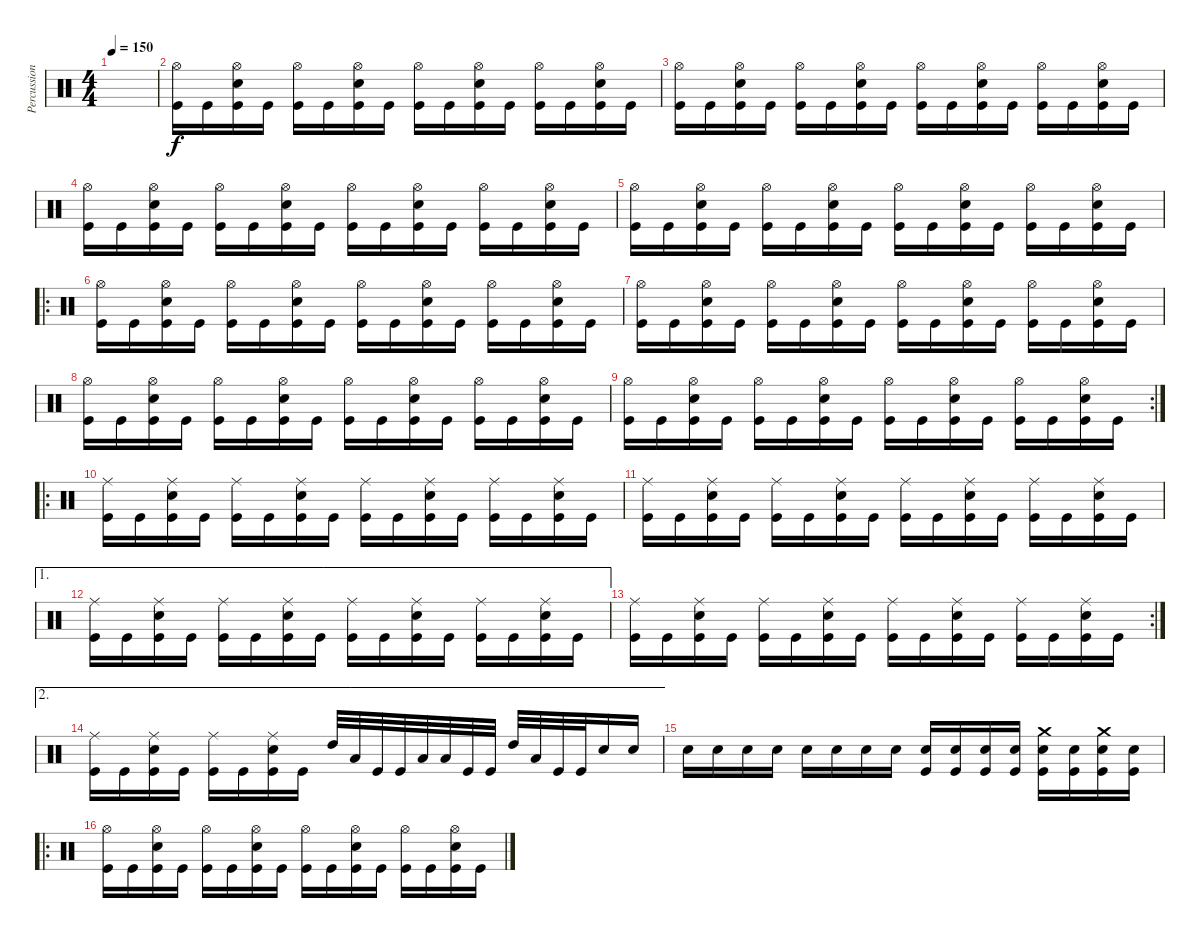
\track ("Percussion" "Percussion") {instrument percussion}
\staff {score}
\articulation defaults
\ts (4 4)
\tempo 150
\clef neutral
\ks c
|
("Hi-Hat (open)" "Kick (hit)").16 "Kick (hit)".16 ("Hi-Hat (open)" "Snare (hit) 2" "Kick (hit)").16 "Kick (hit)".16 ("Hi-Hat (open)" "Kick (hit)").16 "Kick (hit)".16 ("Hi-Hat (open)" "Snare (hit) 2" "Kick (hit)").16 "Kick (hit)".16 ("Hi-Hat (open)" "Kick (hit)").16 "Kick (hit)".16 ("Hi-Hat (open)" "Snare (hit) 2" "Kick (hit)").16 "Kick (hit)".16 ("Hi-Hat (open)" "Kick (hit)").16 "Kick (hit)".16 ("Hi-Hat (open)" "Snare (hit) 2" "Kick (hit)").16 "Kick (hit)".16 |
("Hi-Hat (open)" "Kick (hit)").16 "Kick (hit)".16 ("Hi-Hat (open)" "Snare (hit) 2" "Kick (hit)").16 "Kick (hit)".16 ("Hi-Hat (open)" "Kick (hit)").16 "Kick (hit)".16 ("Hi-Hat (open)" "Snare (hit) 2" "Kick (hit)").16 "Kick (hit)".16 ("Hi-Hat (open)" "Kick (hit)").16 "Kick (hit)".16 ("Hi-Hat (open)" "Snare (hit) 2" "Kick (hit)").16 "Kick (hit)".16 ("Hi-Hat (open)" "Kick (hit)").16 "Kick (hit)".16 ("Hi-Hat (open)" "Snare (hit) 2" "Kick (hit)").16 "Kick (hit)".16 |
("Hi-Hat (open)" "Kick (hit)").16 "Kick (hit)".16 ("Hi-Hat (open)" "Snare (hit) 2" "Kick (hit)").16 "Kick (hit)".16 ("Hi-Hat (open)" "Kick (hit)").16 "Kick (hit)".16 ("Hi-Hat (open)" "Snare (hit) 2" "Kick (hit)").16 "Kick (hit)".16 ("Hi-Hat (open)" "Kick (hit)").16 "Kick (hit)".16 ("Hi-Hat (open)" "Snare (hit) 2" "Kick (hit)").16 "Kick (hit)".16 ("Hi-Hat (open)" "Kick (hit)").16 "Kick (hit)".16 ("Hi-Hat (open)" "Snare (hit) 2" "Kick (hit)").16 "Kick (hit)".16 |
("Hi-Hat (open)" "Kick (hit)").16 "Kick (hit)".16 ("Hi-Hat (open)" "Snare (hit) 2" "Kick (hit)").16 "Kick (hit)".16 ("Hi-Hat (open)" "Kick (hit)").16 "Kick (hit)".16 ("Hi-Hat (open)" "Snare (hit) 2" "Kick (hit)").16 "Kick (hit)".16 ("Hi-Hat (open)" "Kick (hit)").16 "Kick (hit)".16 ("Hi-Hat (open)" "Snare (hit) 2" "Kick (hit)").16 "Kick (hit)".16 ("Hi-Hat (open)" "Kick (hit)").16 "Kick (hit)".16 ("Hi-Hat (open)" "Snare (hit) 2" "Kick (hit)").16 "Kick (hit)".16 |
\ro
("Hi-Hat (open)" "Kick (hit)").16 "Kick (hit)".16 ("Hi-Hat (open)" "Snare (hit) 2" "Kick (hit)").16 "Kick (hit)".16 ("Hi-Hat (open)" "Kick (hit)").16 "Kick (hit)".16 ("Hi-Hat (open)" "Snare (hit) 2" "Kick (hit)").16 "Kick (hit)".16 ("Hi-Hat (open)" "Kick (hit)").16 "Kick (hit)".16 ("Hi-Hat (open)" "Snare (hit) 2" "Kick (hit)").16 "Kick (hit)".16 ("Hi-Hat (open)" "Kick (hit)").16 "Kick (hit)".16 ("Hi-Hat (open)" "Snare (hit) 2" "Kick (hit)").16 "Kick (hit)".16 |
("Hi-Hat (open)" "Kick (hit)").16 "Kick (hit)".16 ("Hi-Hat (open)" "Snare (hit) 2" "Kick (hit)").16 "Kick (hit)".16 ("Hi-Hat (open)" "Kick (hit)").16 "Kick (hit)".16 ("Hi-Hat (open)" "Snare (hit) 2" "Kick (hit)").16 "Kick (hit)".16 ("Hi-Hat (open)" "Kick (hit)").16 "Kick (hit)".16 ("Hi-Hat (open)" "Snare (hit) 2" "Kick (hit)").16 "Kick (hit)".16 ("Hi-Hat (open)" "Kick (hit)").16 "Kick (hit)".16 ("Hi-Hat (open)" "Snare (hit) 2" "Kick (hit)").16 "Kick (hit)".16 |
("Hi-Hat (open)" "Kick (hit)").16 "Kick (hit)".16 ("Hi-Hat (open)" "Snare (hit) 2" "Kick (hit)").16 "Kick (hit)".16 ("Hi-Hat (open)" "Kick (hit)").16 "Kick (hit)".16 ("Hi-Hat (open)" "Snare (hit) 2" "Kick (hit)").16 "Kick (hit)".16 ("Hi-Hat (open)" "Kick (hit)").16 "Kick (hit)".16 ("Hi-Hat (open)" "Snare (hit) 2" "Kick (hit)").16 "Kick (hit)".16 ("Hi-Hat (open)" "Kick (hit)").16 "Kick (hit)".16 ("Hi-Hat (open)" "Snare (hit) 2" "Kick (hit)").16 "Kick (hit)".16 |
\rc 2
("Hi-Hat (open)" "Kick (hit)").16 "Kick (hit)".16 ("Hi-Hat (open)" "Snare (hit) 2" "Kick (hit)").16 "Kick (hit)".16 ("Hi-Hat (open)" "Kick (hit)").16 "Kick (hit)".16 ("Hi-Hat (open)" "Snare (hit) 2" "Kick (hit)").16 "Kick (hit)".16 ("Hi-Hat (open)" "Kick (hit)").16 "Kick (hit)".16 ("Hi-Hat (open)" "Snare (hit) 2" "Kick (hit)").16 "Kick (hit)".16 ("Hi-Hat (open)" "Kick (hit)").16 "Kick (hit)".16 ("Hi-Hat (open)" "Snare (hit) 2" "Kick (hit)").16 "Kick (hit)".16 |
\ro
("Ride (middle)" "Kick (hit)").16 "Kick (hit)".16 ("Ride (middle)" "Snare (hit) 2" "Kick (hit)").16 "Kick (hit)".16 ("Ride (middle)" "Kick (hit)").16 "Kick (hit)".16 ("Ride (middle)" "Snare (hit) 2" "Kick (hit)").16 "Kick (hit)".16 ("Ride (middle)" "Kick (hit)").16 "Kick (hit)".16 ("Ride (middle)" "Snare (hit) 2" "Kick (hit)").16 "Kick (hit)".16 ("Ride (middle)" "Kick (hit)").16 "Kick (hit)".16 ("Ride (middle)" "Snare (hit) 2" "Kick (hit)").16 "Kick (hit)".16 |
("Ride (middle)" "Kick (hit)").16 "Kick (hit)".16 ("Ride (middle)" "Snare (hit) 2" "Kick (hit)").16 "Kick (hit)".16 ("Ride (middle)" "Kick (hit)").16 "Kick (hit)".16 ("Ride (middle)" "Snare (hit) 2" "Kick (hit)").16 "Kick (hit)".16 ("Ride (middle)" "Kick (hit)").16 "Kick (hit)".16 ("Ride (middle)" "Snare (hit) 2" "Kick (hit)").16 "Kick (hit)".16 ("Ride (middle)" "Kick (hit)").16 "Kick (hit)".16 ("Ride (middle)" "Snare (hit) 2" "Kick (hit)").16 "Kick (hit)".16 |
\ae 1
("Ride (middle)" "Kick (hit)").16 "Kick (hit)".16 ("Ride (middle)" "Snare (hit) 2" "Kick (hit)").16 "Kick (hit)".16 ("Ride (middle)" "Kick (hit)").16 "Kick (hit)".16 ("Ride (middle)" "Snare (hit) 2" "Kick (hit)").16 "Kick (hit)".16 ("Ride (middle)" "Kick (hit)").16 "Kick (hit)".16 ("Ride (middle)" "Snare (hit) 2" "Kick (hit)").16 "Kick (hit)".16 ("Ride (middle)" "Kick (hit)").16 "Kick (hit)".16 ("Ride (middle)" "Snare (hit) 2" "Kick (hit)").16 "Kick (hit)".16 |
\rc 2
("Ride (middle)" "Kick (hit)").16 "Kick (hit)".16 ("Ride (middle)" "Snare (hit) 2" "Kick (hit)").16 "Kick (hit)".16 ("Ride (middle)" "Kick (hit)").16 "Kick (hit)".16 ("Ride (middle)" "Snare (hit) 2" "Kick (hit)").16 "Kick (hit)".16 ("Ride (middle)" "Kick (hit)").16 "Kick (hit)".16 ("Ride (middle)" "Snare (hit) 2" "Kick (hit)").16 "Kick (hit)".16 ("Ride (middle)" "Kick (hit)").16 "Kick (hit)".16 ("Ride (middle)" "Snare (hit) 2" "Kick (hit)").16 "Kick (hit)".16 |
\ae 2
("Ride (middle)" "Kick (hit)").16 "Kick (hit)".16 ("Ride (middle)" "Snare (hit) 2" "Kick (hit)").16 "Kick (hit)".16 ("Ride (middle)" "Kick (hit)").16 "Kick (hit)".16 ("Ride (middle)" "Snare (hit) 2" "Kick (hit)").16 "Kick (hit)".16 "High Tom (hit)".32 "Low Tom (hit)".32 "Kick (hit)".32 "Kick (hit)".32 "Low Tom (hit)".32 "Low Floor Tom (hit)".32 "Kick (hit)".32 "Kick (hit)".32 "High Tom (hit)".32 "Low Tom (hit)".32 "Kick (hit)".32 "Kick (hit)".32 "Snare (hit) 2".16 "Snare (hit) 2".16 |
"Snare (hit) 2".16 "Snare (hit) 2".16 "Snare (hit) 2".16 "Snare (hit) 2".16 "Snare (hit) 2".16 "Snare (hit) 2".16 "Snare (hit) 2".16 "Snare (hit) 2".16 ("Snare (hit) 2" "Kick (hit)").16 ("Snare (hit) 2" "Kick (hit)").16 ("Snare (hit) 2" "Kick (hit)").16 ("Snare (hit) 2" "Kick (hit)").16 ("Crash medium (hit)" "Snare (hit) 2" "Kick (hit)").16 ("Snare (hit) 2" "Kick (hit)").16 ("Crash medium (hit)" "Snare (hit) 2" "Kick (hit)").16 ("Snare (hit) 2" "Kick (hit)").16 |
\ro
("Hi-Hat (open)" "Kick (hit)").16 "Kick (hit)".16 ("Hi-Hat (open)" "Snare (hit) 2" "Kick (hit)").16 "Kick (hit)".16 ("Hi-Hat (open)" "Kick (hit)").16 "Kick (hit)".16 ("Hi-Hat (open)" "Snare (hit) 2" "Kick (hit)").16 "Kick (hit)".16 ("Hi-Hat (open)" "Kick (hit)").16 "Kick (hit)".16 ("Hi-Hat (open)" "Snare (hit) 2" "Kick (hit)").16 "Kick (hit)".16 ("Hi-Hat (open)" "Kick (hit)").16 "Kick (hit)".16 ("Hi-Hat (open)" "Snare (hit) 2" "Kick (hit)").16 "Kick (hit)".16
